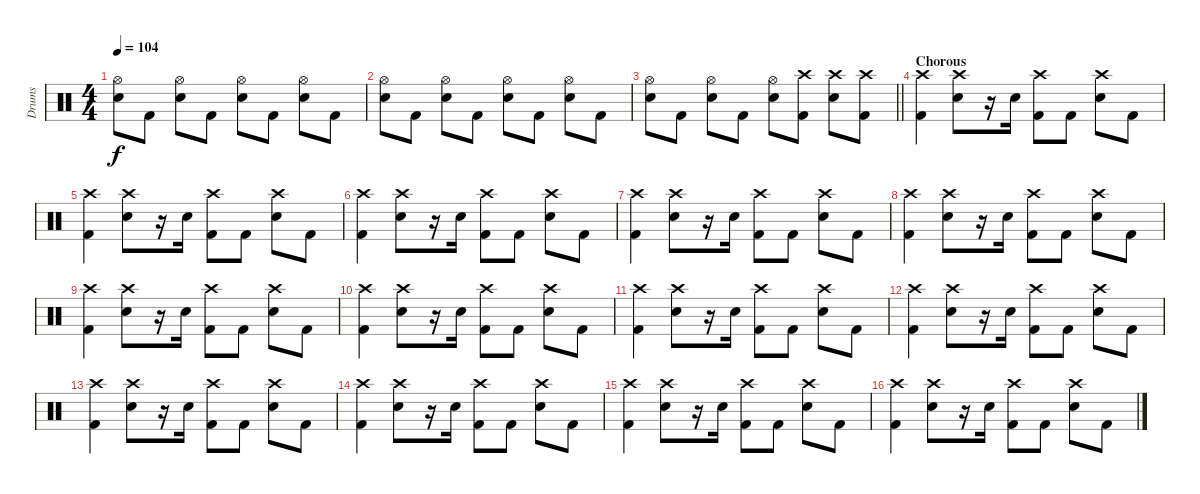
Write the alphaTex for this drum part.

\track ("Drums" "Drums") {instrument percussion}
\staff {score}
\articulation defaults
\ts (4 4)
\tempo 104
\clef neutral
\ks c
("Hi-Hat (open)" "Electric Snare (hit)").8{dy f} "Kick (hit) 2".8 ("Hi-Hat (open)" "Electric Snare (hit)").8 "Kick (hit) 2".8 ("Hi-Hat (open)" "Electric Snare (hit)").8 "Kick (hit) 2".8 ("Hi-Hat (open)" "Electric Snare (hit)").8 "Kick (hit) 2".8 |
("Hi-Hat (open)" "Electric Snare (hit)").8 "Kick (hit) 2".8 ("Hi-Hat (open)" "Electric Snare (hit)").8 "Kick (hit) 2".8 ("Hi-Hat (open)" "Electric Snare (hit)").8 "Kick (hit) 2".8 ("Hi-Hat (open)" "Electric Snare (hit)").8 "Kick (hit) 2".8 |
\barLineRight lightlight
("Hi-Hat (open)" "Electric Snare (hit)").8 "Kick (hit) 2".8 ("Hi-Hat (open)" "Electric Snare (hit)").8 "Kick (hit) 2".8 ("Hi-Hat (open)" "Electric Snare (hit)").8 ("Kick (hit) 2" "Crash high (hit)").8 ("Crash high (hit)" "Electric Snare (hit)").8 ("Kick (hit) 2" "Crash high (hit)").8 |
\section ("" "Chorous")
("Crash high (hit)" "Kick (hit) 2").4 ("Crash high (hit)" "Electric Snare (hit)").8 r.16 "Electric Snare (hit)".16 ("Crash high (hit)" "Kick (hit) 2").8 "Kick (hit) 2".8 ("Crash high (hit)" "Electric Snare (hit)").8 "Kick (hit) 2".8 |
("Crash high (hit)" "Kick (hit) 2").4 ("Crash high (hit)" "Electric Snare (hit)").8 r.16 "Electric Snare (hit)".16 ("Crash high (hit)" "Kick (hit) 2").8 "Kick (hit) 2".8 ("Crash high (hit)" "Electric Snare (hit)").8 "Kick (hit) 2".8 |
("Crash high (hit)" "Kick (hit) 2").4 ("Crash high (hit)" "Electric Snare (hit)").8 r.16 "Electric Snare (hit)".16 ("Crash high (hit)" "Kick (hit) 2").8 "Kick (hit) 2".8 ("Crash high (hit)" "Electric Snare (hit)").8 "Kick (hit) 2".8 |
("Crash high (hit)" "Kick (hit) 2").4 ("Crash high (hit)" "Electric Snare (hit)").8 r.16 "Electric Snare (hit)".16 ("Crash high (hit)" "Kick (hit) 2").8 "Kick (hit) 2".8 ("Crash high (hit)" "Electric Snare (hit)").8 "Kick (hit) 2".8 |
("Crash high (hit)" "Kick (hit) 2").4 ("Crash high (hit)" "Electric Snare (hit)").8 r.16 "Electric Snare (hit)".16 ("Crash high (hit)" "Kick (hit) 2").8 "Kick (hit) 2".8 ("Crash high (hit)" "Electric Snare (hit)").8 "Kick (hit) 2".8 |
("Crash high (hit)" "Kick (hit) 2").4 ("Crash high (hit)" "Electric Snare (hit)").8 r.16 "Electric Snare (hit)".16 ("Crash high (hit)" "Kick (hit) 2").8 "Kick (hit) 2".8 ("Crash high (hit)" "Electric Snare (hit)").8 "Kick (hit) 2".8 |
("Crash high (hit)" "Kick (hit) 2").4 ("Crash high (hit)" "Electric Snare (hit)").8 r.16 "Electric Snare (hit)".16 ("Crash high (hit)" "Kick (hit) 2").8 "Kick (hit) 2".8 ("Crash high (hit)" "Electric Snare (hit)").8 "Kick (hit) 2".8 |
("Crash high (hit)" "Kick (hit) 2").4 ("Crash high (hit)" "Electric Snare (hit)").8 r.16 "Electric Snare (hit)".16 ("Crash high (hit)" "Kick (hit) 2").8 "Kick (hit) 2".8 ("Crash high (hit)" "Electric Snare (hit)").8 "Kick (hit) 2".8 |
("Crash high (hit)" "Kick (hit) 2").4 ("Crash high (hit)" "Electric Snare (hit)").8 r.16 "Electric Snare (hit)".16 ("Crash high (hit)" "Kick (hit) 2").8 "Kick (hit) 2".8 ("Crash high (hit)" "Electric Snare (hit)").8 "Kick (hit) 2".8 |
("Crash high (hit)" "Kick (hit) 2").4 ("Crash high (hit)" "Electric Snare (hit)").8 r.16 "Electric Snare (hit)".16 ("Crash high (hit)" "Kick (hit) 2").8 "Kick (hit) 2".8 ("Crash high (hit)" "Electric Snare (hit)").8 "Kick (hit) 2".8 |
("Crash high (hit)" "Kick (hit) 2").4 ("Crash high (hit)" "Electric Snare (hit)").8 r.16 "Electric Snare (hit)".16 ("Crash high (hit)" "Kick (hit) 2").8 "Kick (hit) 2".8 ("Crash high (hit)" "Electric Snare (hit)").8 "Kick (hit) 2".8 |
("Crash high (hit)" "Kick (hit) 2").4 ("Crash high (hit)" "Electric Snare (hit)").8 r.16 "Electric Snare (hit)".16 ("Crash high (hit)" "Kick (hit) 2").8 "Kick (hit) 2".8 ("Crash high (hit)" "Electric Snare (hit)").8 "Kick (hit) 2".8 |
("Crash high (hit)" "Kick (hit) 2").4 ("Crash high (hit)" "Electric Snare (hit)").8 r.16 "Electric Snare (hit)".16 ("Crash high (hit)" "Kick (hit) 2").8 "Kick (hit) 2".8 ("Crash high (hit)" "Electric Snare (hit)").8 "Kick (hit) 2".8
